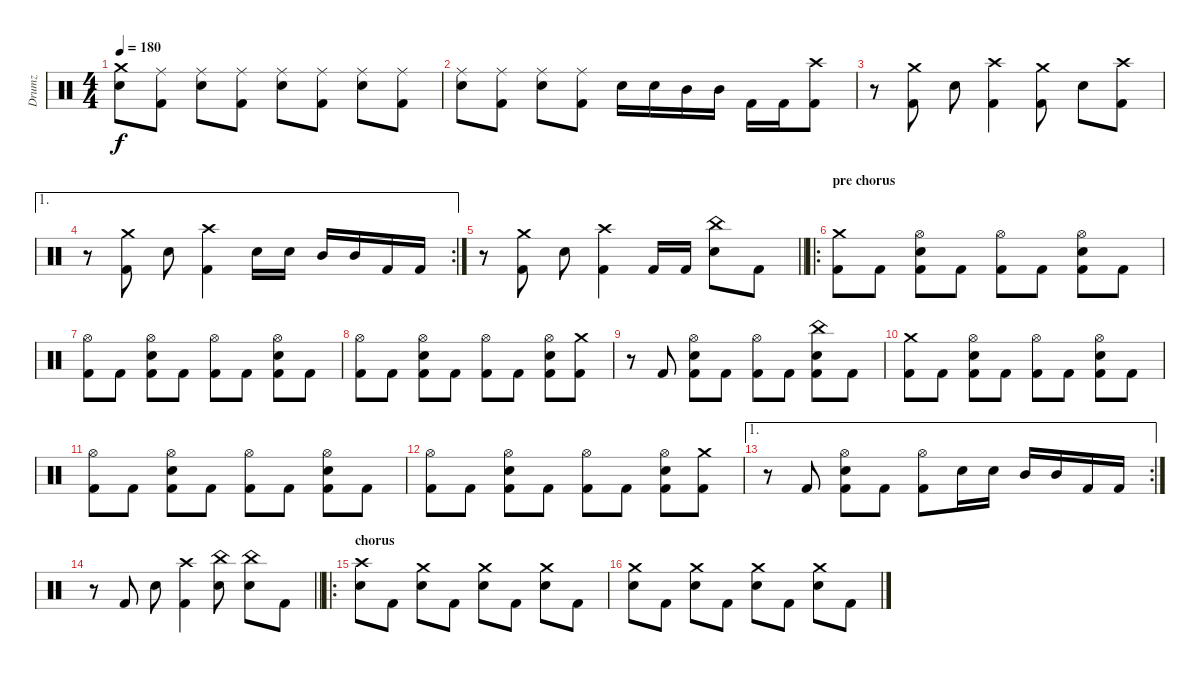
\track ("Drumz" "Drumz") {instrument percussion}
\staff {score}
\articulation defaults
\ts (4 4)
\tempo 180
\clef neutral
\ks c
("Crash medium (hit)" "Electric Snare (hit)").8{dy f} ("Ride (middle)" "Kick (hit) 2").8 ("Ride (middle)" "Electric Snare (hit)").8 ("Ride (middle)" "Kick (hit) 2").8 ("Ride (middle)" "Electric Snare (hit)").8 ("Ride (middle)" "Kick (hit) 2").8 ("Ride (middle)" "Electric Snare (hit)").8 ("Ride (middle)" "Kick (hit) 2").8 |
("Ride (middle)" "Electric Snare (hit)").8 ("Ride (middle)" "Kick (hit) 2").8 ("Ride (middle)" "Electric Snare (hit)").8 ("Ride (middle)" "Kick (hit) 2").8 "Electric Snare (hit)".16 "Electric Snare (hit)".16 "Mid Tom (hit)".16 "Mid Tom (hit)".16 "Kick (hit) 2".16 "Kick (hit) 2".16 ("Crash high (hit)" "Kick (hit) 2").8 |
r.8 ("Crash medium (hit)" "Kick (hit) 2").8 "Electric Snare (hit)".8 ("Crash high (hit)" "Kick (hit) 2").4 ("Crash medium (hit)" "Kick (hit) 2").8 "Electric Snare (hit)".8 ("Crash high (hit)" "Kick (hit) 2").8 |
\ae 1
\rc 2
r.8 ("Crash medium (hit)" "Kick (hit) 2").8 "Electric Snare (hit)".8 ("Crash high (hit)" "Kick (hit) 2").4 "Electric Snare (hit)".16 "Electric Snare (hit)".16 "Mid Tom (hit)".16 "Mid Tom (hit)".16 "Kick (hit) 2".16 "Kick (hit) 2".16 |
\barLineRight lightlight
r.8 ("Crash medium (hit)" "Kick (hit) 2").8 "Electric Snare (hit)".8 ("Crash high (hit)" "Kick (hit) 2").4 "Kick (hit) 2".16 "Kick (hit) 2".16 ("China (hit)" "Electric Snare (hit)").8 "Kick (hit) 2".8 |
\ro
\section ("" "pre chorus")
("Crash medium (hit)" "Kick (hit) 2").8 "Kick (hit) 2".8 ("Hi-Hat (open)" "Electric Snare (hit)" "Kick (hit) 2").8 "Kick (hit) 2".8 ("Hi-Hat (open)" "Kick (hit) 2").8 "Kick (hit) 2".8 ("Hi-Hat (open)" "Electric Snare (hit)" "Kick (hit) 2").8 "Kick (hit) 2".8 |
("Hi-Hat (open)" "Kick (hit) 2").8 "Kick (hit) 2".8 ("Hi-Hat (open)" "Electric Snare (hit)" "Kick (hit) 2").8 "Kick (hit) 2".8 ("Hi-Hat (open)" "Kick (hit) 2").8 "Kick (hit) 2".8 ("Hi-Hat (open)" "Electric Snare (hit)" "Kick (hit) 2").8 "Kick (hit) 2".8 |
("Hi-Hat (open)" "Kick (hit) 2").8 "Kick (hit) 2".8 ("Hi-Hat (open)" "Electric Snare (hit)" "Kick (hit) 2").8 "Kick (hit) 2".8 ("Hi-Hat (open)" "Kick (hit) 2").8 "Kick (hit) 2".8 ("Hi-Hat (open)" "Electric Snare (hit)" "Kick (hit) 2").8 ("Crash medium (hit)" "Kick (hit) 2").8 |
r.8 "Kick (hit) 2".8 ("Hi-Hat (open)" "Electric Snare (hit)" "Kick (hit) 2").8 "Kick (hit) 2".8 ("Hi-Hat (open)" "Kick (hit) 2").8 "Kick (hit) 2".8 ("China (hit)" "Electric Snare (hit)" "Kick (hit) 2").8 "Kick (hit) 2".8 |
("Crash medium (hit)" "Kick (hit) 2").8 "Kick (hit) 2".8 ("Hi-Hat (open)" "Electric Snare (hit)" "Kick (hit) 2").8 "Kick (hit) 2".8 ("Hi-Hat (open)" "Kick (hit) 2").8 "Kick (hit) 2".8 ("Hi-Hat (open)" "Electric Snare (hit)" "Kick (hit) 2").8 "Kick (hit) 2".8 |
("Hi-Hat (open)" "Kick (hit) 2").8 "Kick (hit) 2".8 ("Hi-Hat (open)" "Electric Snare (hit)" "Kick (hit) 2").8 "Kick (hit) 2".8 ("Hi-Hat (open)" "Kick (hit) 2").8 "Kick (hit) 2".8 ("Hi-Hat (open)" "Electric Snare (hit)" "Kick (hit) 2").8 "Kick (hit) 2".8 |
("Hi-Hat (open)" "Kick (hit) 2").8 "Kick (hit) 2".8 ("Hi-Hat (open)" "Electric Snare (hit)" "Kick (hit) 2").8 "Kick (hit) 2".8 ("Hi-Hat (open)" "Kick (hit) 2").8 "Kick (hit) 2".8 ("Hi-Hat (open)" "Electric Snare (hit)" "Kick (hit) 2").8 ("Crash medium (hit)" "Kick (hit) 2").8 |
\ae 1
\rc 2
r.8 "Kick (hit) 2".8 ("Hi-Hat (open)" "Electric Snare (hit)" "Kick (hit) 2").8 "Kick (hit) 2".8 ("Hi-Hat (open)" "Kick (hit) 2").8 "Electric Snare (hit)".16 "Electric Snare (hit)".16 "Mid Tom (hit)".16 "Mid Tom (hit)".16 "Kick (hit) 2".16 "Kick (hit) 2".16 |
\barLineRight lightlight
r.8 "Kick (hit) 2".8 "Electric Snare (hit)".8 ("Crash high (hit)" "Kick (hit) 2").4 ("China (hit)" "Electric Snare (hit)").8 ("China (hit)" "Electric Snare (hit)").8 "Kick (hit) 2".8 |
\ro
\section ("" "chorus")
("Crash high (hit)" "Electric Snare (hit)").8 "Kick (hit) 2".8 ("Crash medium (hit)" "Electric Snare (hit)").8 "Kick (hit) 2".8 ("Crash medium (hit)" "Electric Snare (hit)").8 "Kick (hit) 2".8 ("Crash medium (hit)" "Electric Snare (hit)").8 "Kick (hit) 2".8 |
("Crash medium (hit)" "Electric Snare (hit)").8 "Kick (hit) 2".8 ("Crash medium (hit)" "Electric Snare (hit)").8 "Kick (hit) 2".8 ("Crash medium (hit)" "Electric Snare (hit)").8 "Kick (hit) 2".8 ("Crash medium (hit)" "Electric Snare (hit)").8 "Kick (hit) 2".8
